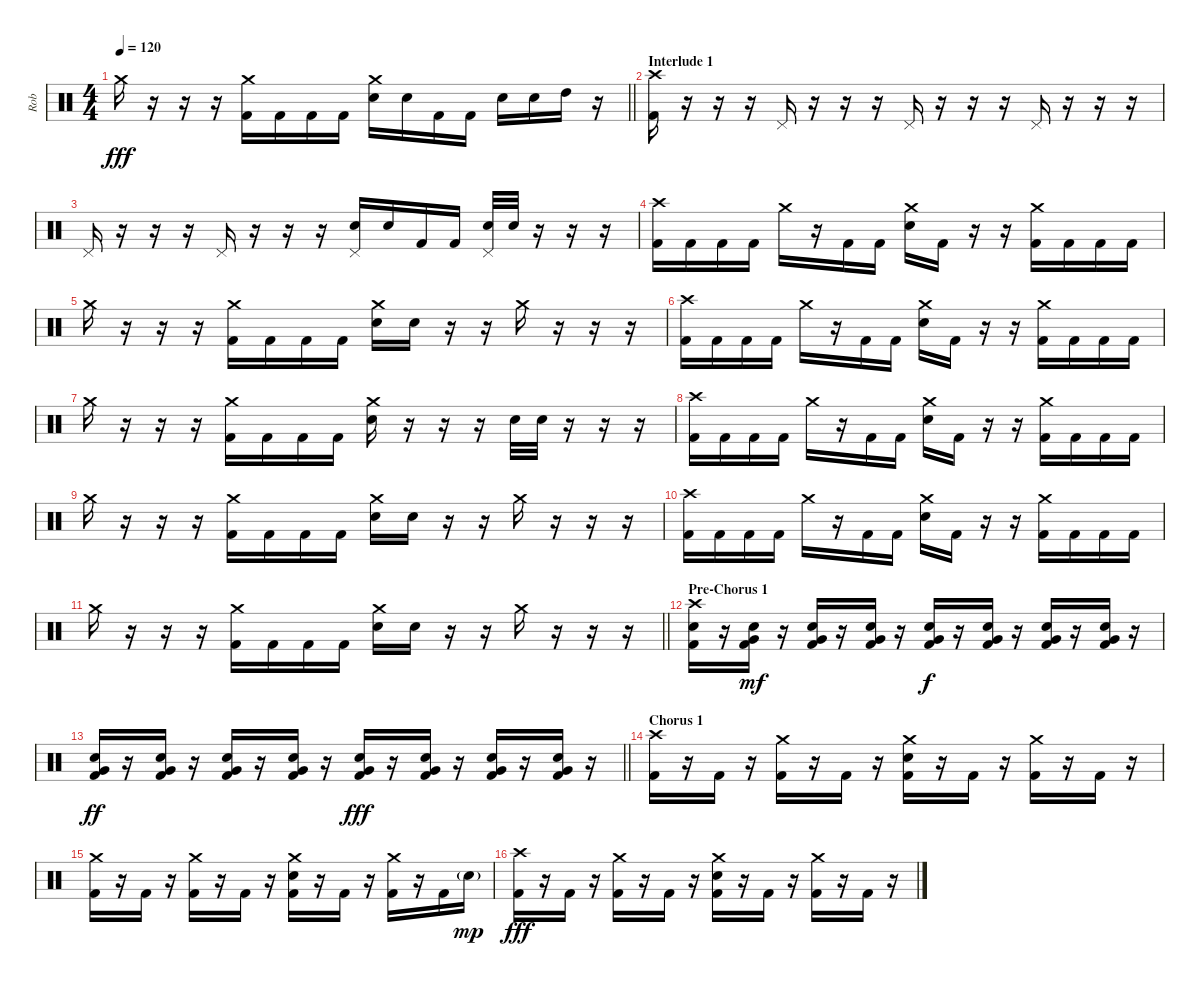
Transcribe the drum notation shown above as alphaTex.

\track ("Rob" "Rob") {instrument percussion}
\staff {score}
\articulation defaults
\ts (4 4)
\tempo 120
\clef neutral
\barLineRight lightlight
\ks c "Crash medium (hit)".16{dy fff}
r.16 r.16 r.16 ("Crash medium (hit)" "Kick (hit) 2").16 "Kick (hit) 2".16 "Kick (hit) 2".16 "Kick (hit) 2".16 ("Crash medium (hit)" "Electric Snare (hit)").16 "Electric Snare (hit)".16 "Kick (hit) 2".16 "Kick (hit) 2".16 "Electric Snare (hit)".16 "Electric Snare (hit)".16 "High Tom (hit)".16 r.16 |
\section ("" "Interlude 1")
("Crash high (hit)" "Kick (hit) 2").16 r.16 r.16 r.16 "Pedal Hi-Hat (hit)".16 r.16 r.16 r.16 "Pedal Hi-Hat (hit)".16 r.16 r.16 r.16 "Pedal Hi-Hat (hit)".16 r.16 r.16 r.16 |
"Pedal Hi-Hat (hit)".16 r.16 r.16 r.16 "Pedal Hi-Hat (hit)".16 r.16 r.16 r.16 ("Pedal Hi-Hat (hit)" "Electric Snare (hit)").16 "Electric Snare (hit)".16 "Kick (hit) 2".16 "Kick (hit) 2".16 ("Pedal Hi-Hat (hit)" "Electric Snare (hit)").32 "Electric Snare (hit)".32 r.16 r.16 r.16 |
("Crash high (hit)" "Kick (hit) 2").16 "Kick (hit) 2".16 "Kick (hit) 2".16 "Kick (hit) 2".16 "Crash medium (hit)".16 r.16 "Kick (hit) 2".16 "Kick (hit) 2".16 ("Crash medium (hit)" "Electric Snare (hit)").16 "Kick (hit) 2".16 r.16 r.16 ("Crash medium (hit)" "Kick (hit) 2").16 "Kick (hit) 2".16 "Kick (hit) 2".16 "Kick (hit) 2".16 |
"Crash medium (hit)".16 r.16 r.16 r.16 ("Crash medium (hit)" "Kick (hit) 2").16 "Kick (hit) 2".16 "Kick (hit) 2".16 "Kick (hit) 2".16 ("Crash medium (hit)" "Electric Snare (hit)").16 "Electric Snare (hit)".16 r.16 r.16 "Crash medium (hit)".16 r.16 r.16 r.16 |
("Crash high (hit)" "Kick (hit) 2").16 "Kick (hit) 2".16 "Kick (hit) 2".16 "Kick (hit) 2".16 "Crash medium (hit)".16 r.16 "Kick (hit) 2".16 "Kick (hit) 2".16 ("Crash medium (hit)" "Electric Snare (hit)").16 "Kick (hit) 2".16 r.16 r.16 ("Crash medium (hit)" "Kick (hit) 2").16 "Kick (hit) 2".16 "Kick (hit) 2".16 "Kick (hit) 2".16 |
"Crash medium (hit)".16 r.16 r.16 r.16 ("Crash medium (hit)" "Kick (hit) 2").16 "Kick (hit) 2".16 "Kick (hit) 2".16 "Kick (hit) 2".16 ("Crash medium (hit)" "Electric Snare (hit)").16 r.16 r.16 r.16 "Electric Snare (hit)".32 "Electric Snare (hit)".32 r.16 r.16 r.16 |
("Crash high (hit)" "Kick (hit) 2").16 "Kick (hit) 2".16 "Kick (hit) 2".16 "Kick (hit) 2".16 "Crash medium (hit)".16 r.16 "Kick (hit) 2".16 "Kick (hit) 2".16 ("Crash medium (hit)" "Electric Snare (hit)").16 "Kick (hit) 2".16 r.16 r.16 ("Crash medium (hit)" "Kick (hit) 2").16 "Kick (hit) 2".16 "Kick (hit) 2".16 "Kick (hit) 2".16 |
"Crash medium (hit)".16 r.16 r.16 r.16 ("Crash medium (hit)" "Kick (hit) 2").16 "Kick (hit) 2".16 "Kick (hit) 2".16 "Kick (hit) 2".16 ("Crash medium (hit)" "Electric Snare (hit)").16 "Electric Snare (hit)".16 r.16 r.16 "Crash medium (hit)".16 r.16 r.16 r.16 |
("Crash high (hit)" "Kick (hit) 2").16 "Kick (hit) 2".16 "Kick (hit) 2".16 "Kick (hit) 2".16 "Crash medium (hit)".16 r.16 "Kick (hit) 2".16 "Kick (hit) 2".16 ("Crash medium (hit)" "Electric Snare (hit)").16 "Kick (hit) 2".16 r.16 r.16 ("Crash medium (hit)" "Kick (hit) 2").16 "Kick (hit) 2".16 "Kick (hit) 2".16 "Kick (hit) 2".16 |
\barLineRight lightlight "Crash medium (hit)".16
r.16 r.16 r.16 ("Crash medium (hit)" "Kick (hit) 2").16 "Kick (hit) 2".16 "Kick (hit) 2".16 "Kick (hit) 2".16 ("Crash medium (hit)" "Electric Snare (hit)").16 "Electric Snare (hit)".16 r.16 r.16 "Crash medium (hit)".16 r.16 r.16 r.16 |
\section ("" "Pre-Chorus 1")
("Crash high (hit)" "Electric Snare (hit)" "Kick (hit) 2").16 r.16 ("Electric Snare (hit)" "Very Low Tom (hit)" "Kick (hit) 2").16{dy mf} r.16 ("Electric Snare (hit)" "Very Low Tom (hit)" "Kick (hit) 2").16 r.16 ("Electric Snare (hit)" "Very Low Tom (hit)" "Kick (hit) 2").16 r.16 ("Electric Snare (hit)" "Very Low Tom (hit)" "Kick (hit) 2").16{dy f} r.16 ("Electric Snare (hit)" "Very Low Tom (hit)" "Kick (hit) 2").16 r.16 ("Electric Snare (hit)" "Very Low Tom (hit)" "Kick (hit) 2").16 r.16 ("Electric Snare (hit)" "Very Low Tom (hit)" "Kick (hit) 2").16 r.16 |
\barLineRight lightlight
("Electric Snare (hit)" "Very Low Tom (hit)" "Kick (hit) 2").16{dy ff} r.16 ("Electric Snare (hit)" "Very Low Tom (hit)" "Kick (hit) 2").16 r.16 ("Electric Snare (hit)" "Very Low Tom (hit)" "Kick (hit) 2").16 r.16 ("Electric Snare (hit)" "Very Low Tom (hit)" "Kick (hit) 2").16 r.16 ("Electric Snare (hit)" "Very Low Tom (hit)" "Kick (hit) 2").16{dy fff} r.16 ("Electric Snare (hit)" "Very Low Tom (hit)" "Kick (hit) 2").16 r.16 ("Electric Snare (hit)" "Very Low Tom (hit)" "Kick (hit) 2").16 r.16 ("Electric Snare (hit)" "Very Low Tom (hit)" "Kick (hit) 2").16 r.16 |
\section ("" "Chorus 1")
("Crash high (hit)" "Kick (hit) 2").16 r.16 "Kick (hit) 2".16 r.16 ("Crash medium (hit)" "Kick (hit) 2").16 r.16 "Kick (hit) 2".16 r.16 ("Crash medium (hit)" "Electric Snare (hit)" "Kick (hit) 2").16 r.16 "Kick (hit) 2".16 r.16 ("Crash medium (hit)" "Kick (hit) 2").16 r.16 "Kick (hit) 2".16 r.16 |
("Crash medium (hit)" "Kick (hit) 2").16 r.16 "Kick (hit) 2".16 r.16 ("Crash medium (hit)" "Kick (hit) 2").16 r.16 "Kick (hit) 2".16 r.16 ("Crash medium (hit)" "Electric Snare (hit)" "Kick (hit) 2").16 r.16 "Kick (hit) 2".16 r.16 ("Crash medium (hit)" "Kick (hit) 2").16 r.16 "Kick (hit) 2".16 "Electric Snare (hit)"{g}.16{dy mp} |
("Crash high (hit)" "Kick (hit) 2").16{dy fff} r.16 "Kick (hit) 2".16 r.16 ("Crash medium (hit)" "Kick (hit) 2").16 r.16 "Kick (hit) 2".16 r.16 ("Crash medium (hit)" "Electric Snare (hit)" "Kick (hit) 2").16 r.16 "Kick (hit) 2".16 r.16 ("Crash medium (hit)" "Kick (hit) 2").16 r.16 "Kick (hit) 2".16 r.16
